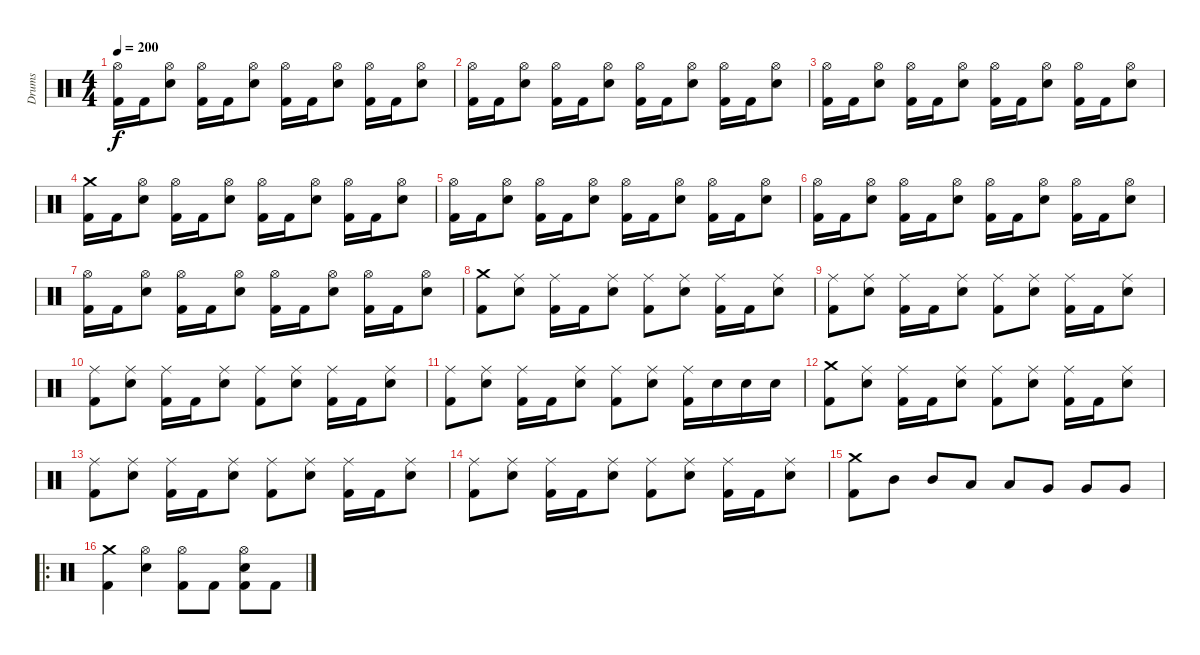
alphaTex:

\track ("Drums" "Drums") {instrument percussion}
\staff {score}
\articulation defaults
\ts (4 4)
\tempo 200
\clef neutral
\ks c
("Hi-Hat (open)" "Kick (hit) 2").16{dy f} "Kick (hit) 2".16 ("Hi-Hat (open)" "Electric Snare (hit)").8 ("Hi-Hat (open)" "Kick (hit) 2").16 "Kick (hit) 2".16 ("Hi-Hat (open)" "Electric Snare (hit)").8 ("Hi-Hat (open)" "Kick (hit) 2").16 "Kick (hit) 2".16 ("Hi-Hat (open)" "Electric Snare (hit)").8 ("Hi-Hat (open)" "Kick (hit) 2").16 "Kick (hit) 2".16 ("Hi-Hat (open)" "Electric Snare (hit)").8 |
("Hi-Hat (open)" "Kick (hit) 2").16 "Kick (hit) 2".16 ("Hi-Hat (open)" "Electric Snare (hit)").8 ("Hi-Hat (open)" "Kick (hit) 2").16 "Kick (hit) 2".16 ("Hi-Hat (open)" "Electric Snare (hit)").8 ("Hi-Hat (open)" "Kick (hit) 2").16 "Kick (hit) 2".16 ("Hi-Hat (open)" "Electric Snare (hit)").8 ("Hi-Hat (open)" "Kick (hit) 2").16 "Kick (hit) 2".16 ("Hi-Hat (open)" "Electric Snare (hit)").8 |
("Hi-Hat (open)" "Kick (hit) 2").16 "Kick (hit) 2".16 ("Hi-Hat (open)" "Electric Snare (hit)").8 ("Hi-Hat (open)" "Kick (hit) 2").16 "Kick (hit) 2".16 ("Hi-Hat (open)" "Electric Snare (hit)").8 ("Hi-Hat (open)" "Kick (hit) 2").16 "Kick (hit) 2".16 ("Hi-Hat (open)" "Electric Snare (hit)").8 ("Hi-Hat (open)" "Kick (hit) 2").16 "Kick (hit) 2".16 ("Hi-Hat (open)" "Electric Snare (hit)").8 |
("Crash medium (hit)" "Kick (hit) 2").16 "Kick (hit) 2".16 ("Hi-Hat (open)" "Electric Snare (hit)").8 ("Hi-Hat (open)" "Kick (hit) 2").16 "Kick (hit) 2".16 ("Hi-Hat (open)" "Electric Snare (hit)").8 ("Hi-Hat (open)" "Kick (hit) 2").16 "Kick (hit) 2".16 ("Hi-Hat (open)" "Electric Snare (hit)").8 ("Hi-Hat (open)" "Kick (hit) 2").16 "Kick (hit) 2".16 ("Hi-Hat (open)" "Electric Snare (hit)").8 |
("Hi-Hat (open)" "Kick (hit) 2").16 "Kick (hit) 2".16 ("Hi-Hat (open)" "Electric Snare (hit)").8 ("Hi-Hat (open)" "Kick (hit) 2").16 "Kick (hit) 2".16 ("Hi-Hat (open)" "Electric Snare (hit)").8 ("Hi-Hat (open)" "Kick (hit) 2").16 "Kick (hit) 2".16 ("Hi-Hat (open)" "Electric Snare (hit)").8 ("Hi-Hat (open)" "Kick (hit) 2").16 "Kick (hit) 2".16 ("Hi-Hat (open)" "Electric Snare (hit)").8 |
("Hi-Hat (open)" "Kick (hit) 2").16 "Kick (hit) 2".16 ("Hi-Hat (open)" "Electric Snare (hit)").8 ("Hi-Hat (open)" "Kick (hit) 2").16 "Kick (hit) 2".16 ("Hi-Hat (open)" "Electric Snare (hit)").8 ("Hi-Hat (open)" "Kick (hit) 2").16 "Kick (hit) 2".16 ("Hi-Hat (open)" "Electric Snare (hit)").8 ("Hi-Hat (open)" "Kick (hit) 2").16 "Kick (hit) 2".16 ("Hi-Hat (open)" "Electric Snare (hit)").8 |
("Hi-Hat (open)" "Kick (hit) 2").16 "Kick (hit) 2".16 ("Hi-Hat (open)" "Electric Snare (hit)").8 ("Hi-Hat (open)" "Kick (hit) 2").16 "Kick (hit) 2".16 ("Hi-Hat (open)" "Electric Snare (hit)").8 ("Hi-Hat (open)" "Kick (hit) 2").16 "Kick (hit) 2".16 ("Hi-Hat (open)" "Electric Snare (hit)").8 ("Hi-Hat (open)" "Kick (hit) 2").16 "Kick (hit) 2".16 ("Hi-Hat (open)" "Electric Snare (hit)").8 |
("Crash medium (hit)" "Kick (hit) 2").8 ("Ride (middle)" "Electric Snare (hit)").8 ("Ride (middle)" "Kick (hit) 2").16 "Kick (hit) 2".16 ("Ride (middle)" "Electric Snare (hit)").8 ("Ride (middle)" "Kick (hit) 2").8 ("Ride (middle)" "Electric Snare (hit)").8 ("Ride (middle)" "Kick (hit) 2").16 "Kick (hit) 2".16 ("Ride (middle)" "Electric Snare (hit)").8 |
("Ride (middle)" "Kick (hit) 2").8 ("Ride (middle)" "Electric Snare (hit)").8 ("Ride (middle)" "Kick (hit) 2").16 "Kick (hit) 2".16 ("Ride (middle)" "Electric Snare (hit)").8 ("Ride (middle)" "Kick (hit) 2").8 ("Ride (middle)" "Electric Snare (hit)").8 ("Ride (middle)" "Kick (hit) 2").16 "Kick (hit) 2".16 ("Ride (middle)" "Electric Snare (hit)").8 |
("Ride (middle)" "Kick (hit) 2").8 ("Ride (middle)" "Electric Snare (hit)").8 ("Ride (middle)" "Kick (hit) 2").16 "Kick (hit) 2".16 ("Ride (middle)" "Electric Snare (hit)").8 ("Ride (middle)" "Kick (hit) 2").8 ("Ride (middle)" "Electric Snare (hit)").8 ("Ride (middle)" "Kick (hit) 2").16 "Kick (hit) 2".16 ("Ride (middle)" "Electric Snare (hit)").8 |
("Ride (middle)" "Kick (hit) 2").8 ("Ride (middle)" "Electric Snare (hit)").8 ("Ride (middle)" "Kick (hit) 2").16 "Kick (hit) 2".16 ("Ride (middle)" "Electric Snare (hit)").8 ("Ride (middle)" "Kick (hit) 2").8 ("Ride (middle)" "Electric Snare (hit)").8 ("Ride (middle)" "Kick (hit) 2").16 "Electric Snare (hit)".16 "Electric Snare (hit)".16 "Electric Snare (hit)".16 |
("Crash medium (hit)" "Kick (hit) 2").8 ("Ride (middle)" "Electric Snare (hit)").8 ("Ride (middle)" "Kick (hit) 2").16 "Kick (hit) 2".16 ("Ride (middle)" "Electric Snare (hit)").8 ("Ride (middle)" "Kick (hit) 2").8 ("Ride (middle)" "Electric Snare (hit)").8 ("Ride (middle)" "Kick (hit) 2").16 "Kick (hit) 2".16 ("Ride (middle)" "Electric Snare (hit)").8 |
("Ride (middle)" "Kick (hit) 2").8 ("Ride (middle)" "Electric Snare (hit)").8 ("Ride (middle)" "Kick (hit) 2").16 "Kick (hit) 2".16 ("Ride (middle)" "Electric Snare (hit)").8 ("Ride (middle)" "Kick (hit) 2").8 ("Ride (middle)" "Electric Snare (hit)").8 ("Ride (middle)" "Kick (hit) 2").16 "Kick (hit) 2".16 ("Ride (middle)" "Electric Snare (hit)").8 |
("Ride (middle)" "Kick (hit) 2").8 ("Ride (middle)" "Electric Snare (hit)").8 ("Ride (middle)" "Kick (hit) 2").16 "Kick (hit) 2".16 ("Ride (middle)" "Electric Snare (hit)").8 ("Ride (middle)" "Kick (hit) 2").8 ("Ride (middle)" "Electric Snare (hit)").8 ("Ride (middle)" "Kick (hit) 2").16 "Kick (hit) 2".16 ("Ride (middle)" "Electric Snare (hit)").8 |
("Crash medium (hit)" "Kick (hit) 2").8 "Mid Tom (hit)".8 "Mid Tom (hit)".8 "Low Tom (hit)".8 "Low Tom (hit)".8 "Very Low Tom (hit)".8 "Very Low Tom (hit)".8 "Very Low Tom (hit)".8 |
\ro
("Crash medium (hit)" "Kick (hit) 2").4 ("Hi-Hat (open)" "Electric Snare (hit)").4 ("Hi-Hat (open)" "Kick (hit) 2").8 "Kick (hit) 2".8 ("Hi-Hat (open)" "Electric Snare (hit)" "Kick (hit) 2").8 "Kick (hit) 2".8
